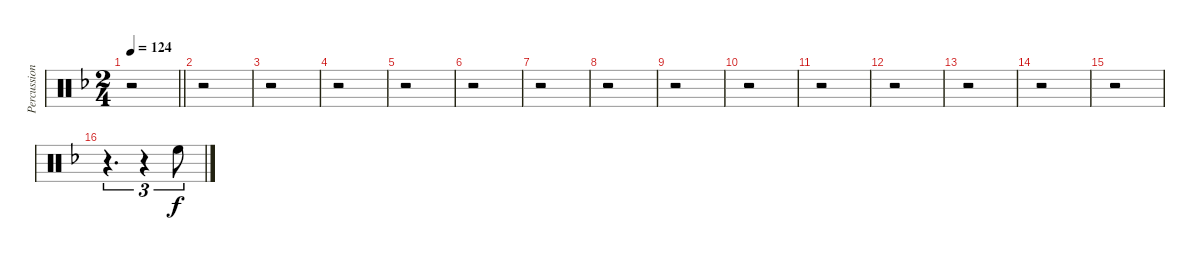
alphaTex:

\track ("Percussions" "Percussion") {instrument percussion}
\staff {score}
\articulation defaults
\ts (2 4)
\tempo 124
\clef neutral
\barLineRight lightlight
\ks dminor
r.2{dy f} |
r.2 |
r.2 |
r.2 |
r.2 |
r.2 |
r.2 |
r.2 |
r.2 |
r.2 |
r.2 |
r.2 |
r.2 |
r.2 |
r.2 |
r.4{d tu (3 2) volume 13 balance 8} r.4{tu (3 2)} "High Floor Tom (hit)".8{tu (3 2)}
